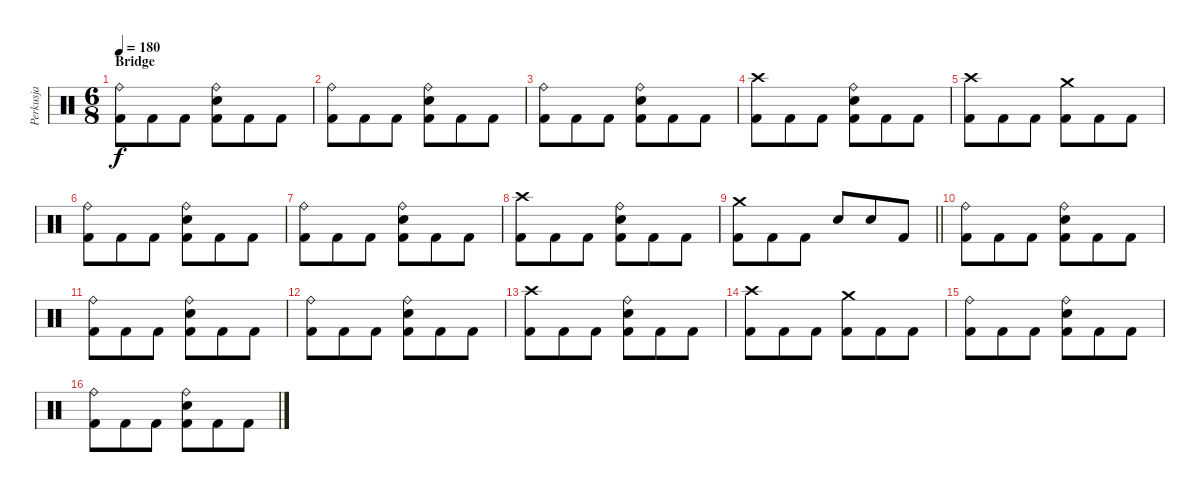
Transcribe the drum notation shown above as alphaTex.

\track ("Perkusja" "Perkusja") {instrument percussion}
\staff {score}
\articulation defaults
\ts (6 8)
\section ("" "Bridge")
\tempo 180
\clef neutral
\ks c
("Ride (bell)" "Kick (hit) 2").8{dy f} "Kick (hit) 2".8 "Kick (hit) 2".8 ("Ride (bell)" "Snare (hit) 2" "Kick (hit) 2").8 "Kick (hit) 2".8 "Kick (hit) 2".8 |
("Ride (bell)" "Kick (hit) 2").8 "Kick (hit) 2".8 "Kick (hit) 2".8 ("Ride (bell)" "Snare (hit) 2" "Kick (hit) 2").8 "Kick (hit) 2".8 "Kick (hit) 2".8 |
("Ride (bell)" "Kick (hit) 2").8 "Kick (hit) 2".8 "Kick (hit) 2".8 ("Ride (bell)" "Snare (hit) 2" "Kick (hit) 2").8 "Kick (hit) 2".8 "Kick (hit) 2".8 |
("Crash high (hit)" "Kick (hit) 2").8 "Kick (hit) 2".8 "Kick (hit) 2".8 ("Ride (bell)" "Snare (hit) 2" "Kick (hit) 2").8 "Kick (hit) 2".8 "Kick (hit) 2".8 |
("Crash high (hit)" "Kick (hit) 2").8 "Kick (hit) 2".8 "Kick (hit) 2".8 ("Crash medium (hit)" "Kick (hit) 2").8 "Kick (hit) 2".8 "Kick (hit) 2".8 |
("Ride (bell)" "Kick (hit) 2").8 "Kick (hit) 2".8 "Kick (hit) 2".8 ("Ride (bell)" "Snare (hit) 2" "Kick (hit) 2").8 "Kick (hit) 2".8 "Kick (hit) 2".8 |
("Ride (bell)" "Kick (hit) 2").8 "Kick (hit) 2".8 "Kick (hit) 2".8 ("Ride (bell)" "Snare (hit) 2" "Kick (hit) 2").8 "Kick (hit) 2".8 "Kick (hit) 2".8 |
("Crash high (hit)" "Kick (hit) 2").8 "Kick (hit) 2".8 "Kick (hit) 2".8 ("Ride (bell)" "Snare (hit) 2" "Kick (hit) 2").8 "Kick (hit) 2".8 "Kick (hit) 2".8 |
\barLineRight lightlight
("Crash medium (hit)" "Kick (hit) 2").8 "Kick (hit) 2".8 "Kick (hit) 2".8 "Snare (hit) 2".8 "Snare (hit) 2".8 "Kick (hit) 2".8 |
("Ride (bell)" "Kick (hit) 2").8 "Kick (hit) 2".8 "Kick (hit) 2".8 ("Ride (bell)" "Snare (hit) 2" "Kick (hit) 2").8 "Kick (hit) 2".8 "Kick (hit) 2".8 |
("Ride (bell)" "Kick (hit) 2").8 "Kick (hit) 2".8 "Kick (hit) 2".8 ("Ride (bell)" "Snare (hit) 2" "Kick (hit) 2").8 "Kick (hit) 2".8 "Kick (hit) 2".8 |
("Ride (bell)" "Kick (hit) 2").8 "Kick (hit) 2".8 "Kick (hit) 2".8 ("Ride (bell)" "Snare (hit) 2" "Kick (hit) 2").8 "Kick (hit) 2".8 "Kick (hit) 2".8 |
("Crash high (hit)" "Kick (hit) 2").8 "Kick (hit) 2".8 "Kick (hit) 2".8 ("Ride (bell)" "Snare (hit) 2" "Kick (hit) 2").8 "Kick (hit) 2".8 "Kick (hit) 2".8 |
("Crash high (hit)" "Kick (hit) 2").8 "Kick (hit) 2".8 "Kick (hit) 2".8 ("Crash medium (hit)" "Kick (hit) 2").8 "Kick (hit) 2".8 "Kick (hit) 2".8 |
("Ride (bell)" "Kick (hit) 2").8 "Kick (hit) 2".8 "Kick (hit) 2".8 ("Ride (bell)" "Snare (hit) 2" "Kick (hit) 2").8 "Kick (hit) 2".8 "Kick (hit) 2".8 |
("Ride (bell)" "Kick (hit) 2").8 "Kick (hit) 2".8 "Kick (hit) 2".8 ("Ride (bell)" "Snare (hit) 2" "Kick (hit) 2").8 "Kick (hit) 2".8 "Kick (hit) 2".8
